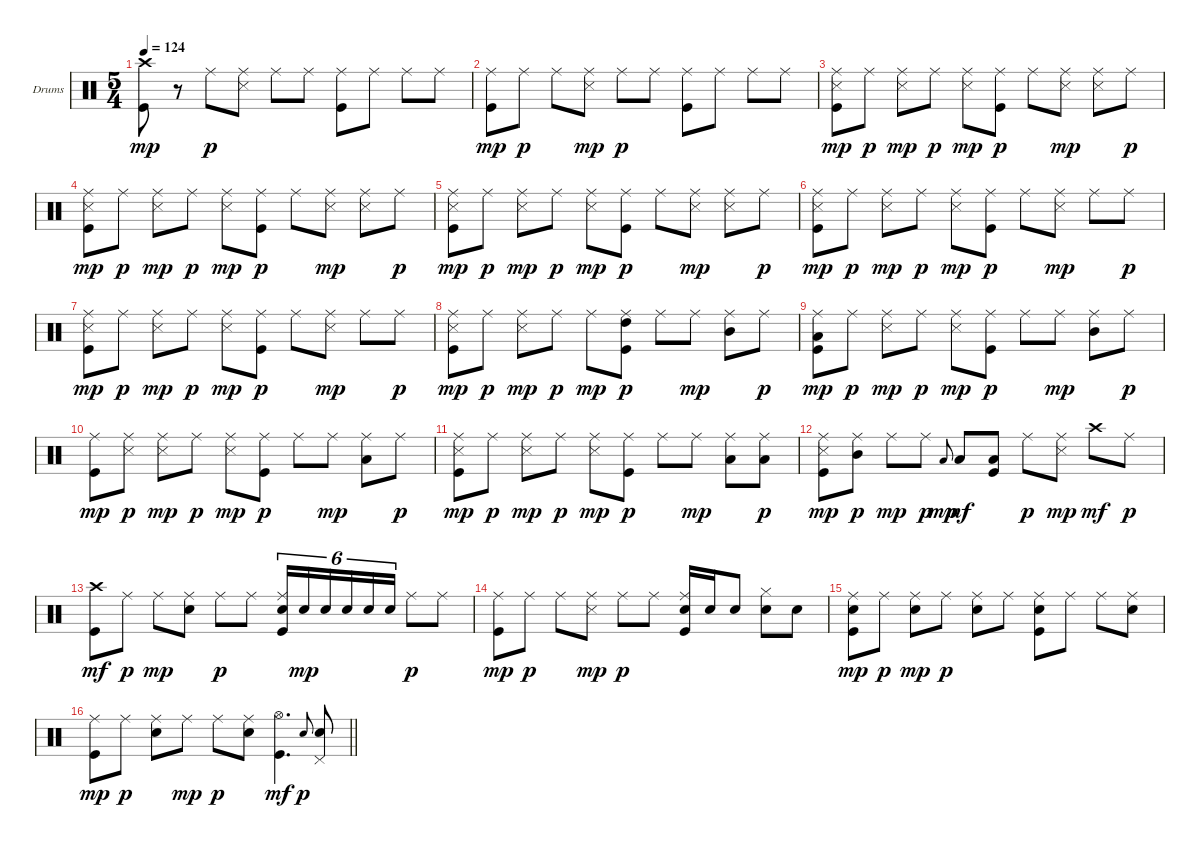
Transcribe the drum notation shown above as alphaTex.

\bracketExtendMode groupsimilarinstruments
\firstSystemTrackNameOrientation horizontal
\otherSystemsTrackNameOrientation horizontal
\track ("Drumkit" "Drums") {instrument percussion}
\staff {score}
\articulation defaults
\ts (5 4)
\tempo 124
\clef neutral
\ks aminor
("Crash high (hit)" "Kick (hit)").8{dy mp} r.8 "Ride (middle)".8{dy p} ("Ride (middle)" "Snare (side stick) 3").8 "Ride (middle)".8 "Ride (middle)".8 ("Ride (middle)" "Kick (hit)").8 "Ride (middle)".8 "Ride (middle)".8 "Ride (middle)".8 |
("Ride (middle)" "Kick (hit)").8{dy mp} "Ride (middle)".8{dy p} "Ride (middle)".8 ("Ride (middle)" "Snare (side stick) 3").8{dy mp} "Ride (middle)".8{dy p} "Ride (middle)".8 ("Ride (middle)" "Kick (hit)").8 "Ride (middle)".8 "Ride (middle)".8 "Ride (middle)".8 |
("Ride (middle)" "Snare (side stick) 3" "Kick (hit)").8{dy mp} "Ride (middle)".8{dy p} ("Ride (middle)" "Snare (side stick) 3").8{dy mp} "Ride (middle)".8{dy p} ("Ride (middle)" "Snare (side stick) 3").8{dy mp} ("Ride (middle)" "Kick (hit)").8{dy p} "Ride (middle)".8 ("Ride (middle)" "Snare (side stick) 3").8{dy mp} ("Ride (middle)" "Snare (side stick) 3").8 "Ride (middle)".8{dy p} |
("Ride (middle)" "Snare (side stick) 3" "Kick (hit)").8{dy mp} "Ride (middle)".8{dy p} ("Ride (middle)" "Snare (side stick) 3").8{dy mp} "Ride (middle)".8{dy p} ("Ride (middle)" "Snare (side stick) 3").8{dy mp} ("Ride (middle)" "Kick (hit)").8{dy p} "Ride (middle)".8 ("Ride (middle)" "Snare (side stick) 3").8{dy mp} ("Ride (middle)" "Snare (side stick) 3").8 "Ride (middle)".8{dy p} |
("Ride (middle)" "Snare (side stick) 3" "Kick (hit)").8{dy mp} "Ride (middle)".8{dy p} ("Ride (middle)" "Snare (side stick) 3").8{dy mp} "Ride (middle)".8{dy p} ("Ride (middle)" "Snare (side stick) 3").8{dy mp} ("Ride (middle)" "Kick (hit)").8{dy p} "Ride (middle)".8 ("Ride (middle)" "Snare (side stick) 3").8{dy mp} ("Ride (middle)" "Snare (side stick) 3").8 "Ride (middle)".8{dy p} |
("Ride (middle)" "Snare (side stick) 3" "Kick (hit)").8{dy mp} "Ride (middle)".8{dy p} ("Ride (middle)" "Snare (side stick) 3").8{dy mp} "Ride (middle)".8{dy p} ("Ride (middle)" "Snare (side stick) 3").8{dy mp} ("Ride (middle)" "Kick (hit)").8{dy p} "Ride (middle)".8 ("Ride (middle)" "Snare (side stick) 3").8{dy mp} "Ride (middle)".8 "Ride (middle)".8{dy p} |
("Ride (middle)" "Snare (side stick) 3" "Kick (hit)").8{dy mp} "Ride (middle)".8{dy p} ("Ride (middle)" "Snare (side stick) 3").8{dy mp} "Ride (middle)".8{dy p} ("Ride (middle)" "Snare (side stick) 3").8{dy mp} ("Ride (middle)" "Kick (hit)").8{dy p} "Ride (middle)".8 ("Ride (middle)" "Snare (side stick) 3").8{dy mp} "Ride (middle)".8 "Ride (middle)".8{dy p} |
("Ride (middle)" "Snare (side stick) 3" "Kick (hit)").8{dy mp} "Ride (middle)".8{dy p} ("Ride (middle)" "Snare (side stick) 3").8{dy mp} "Ride (middle)".8{dy p} "Ride (middle)".8{dy mp} ("Ride (middle)" "High Tom (hit)" "Kick (hit)").8{dy p} "Ride (middle)".8 "Ride (middle)".8{dy mp} ("Ride (middle)" "Mid Tom (hit)").8 "Ride (middle)".8{dy p} |
("Ride (middle)" "Low Tom (hit)" "Kick (hit)").8{dy mp} "Ride (middle)".8{dy p} ("Ride (middle)" "Snare (side stick) 3").8{dy mp} "Ride (middle)".8{dy p} ("Ride (middle)" "Snare (side stick) 3").8{dy mp} ("Ride (middle)" "Kick (hit)").8{dy p} "Ride (middle)".8 "Ride (middle)".8{dy mp} ("Ride (middle)" "Mid Tom (hit)").8 "Ride (middle)".8{dy p} |
("Ride (middle)" "Kick (hit)").8{dy mp} ("Ride (middle)" "Snare (side stick) 3").8{dy p} ("Ride (middle)" "Snare (side stick) 3").8{dy mp} "Ride (middle)".8{dy p} ("Ride (middle)" "Snare (side stick) 3").8{dy mp} ("Ride (middle)" "Kick (hit)").8{dy p} "Ride (middle)".8 "Ride (middle)".8{dy mp} ("Ride (middle)" "Low Tom (hit)").8 "Ride (middle)".8{dy p} |
("Ride (middle)" "Snare (side stick) 3" "Kick (hit)").8{dy mp} "Ride (middle)".8{dy p} ("Ride (middle)" "Snare (side stick) 3").8{dy mp} "Ride (middle)".8{dy p} ("Ride (middle)" "Snare (side stick) 3").8{dy mp} ("Ride (middle)" "Kick (hit)").8{dy p} "Ride (middle)".8 "Ride (middle)".8{dy mp} ("Ride (middle)" "Low Tom (hit)").8 ("Ride (middle)" "Low Tom (hit)").8{dy p} |
("Ride (middle)" "Snare (side stick) 3" "Kick (hit)").8{dy mp} ("Ride (middle)" "Mid Tom (hit)").8{dy p} "Ride (middle)".8{dy mp} "Ride (middle)".8{dy p} "Low Tom (hit)".8{gr onbeat dy mp} "Low Tom (hit)".8{dy mf} ("Low Tom (hit)" "Kick (hit)").8 "Ride (middle)".8{dy p} ("Ride (middle)" "Snare (side stick) 3").8{dy mp} "Crash high (hit)".8{dy mf} "Ride (middle)".8{dy p} |
("Crash high (hit)" "Kick (hit)").8{dy mf} "Ride (middle)".8{dy p} "Ride (middle)".8{dy mp} ("Ride (middle)" "Snare (hit) 2").8 "Ride (middle)".8{dy p} "Ride (middle)".8 ("Ride (middle)" "Snare (hit) 2" "Kick (hit)").16{tu (6 4)} "Snare (hit) 2".16{tu (6 4) dy mp} "Snare (hit) 2".16{tu (6 4)} "Snare (hit) 2".16{tu (6 4)} "Snare (hit) 2".16{tu (6 4)} "Snare (hit) 2".16{tu (6 4)} "Ride (middle)".8{dy p} "Ride (middle)".8 |
("Ride (middle)" "Kick (hit)").8{dy mp} "Ride (middle)".8{dy p} "Ride (middle)".8 ("Ride (middle)" "Snare (side stick) 3").8{dy mp} "Ride (middle)".8{dy p} "Ride (middle)".8 ("Ride (middle)" "Snare (hit) 2" "Kick (hit)").16 "Snare (hit) 2".16 "Snare (hit) 2".8 ("Hi-Hat (closed)" "Snare (hit) 2").8 "Snare (hit) 2".8 |
("Ride (middle)" "Snare (hit) 2" "Kick (hit)").8{dy mp} "Ride (middle)".8{dy p} ("Ride (middle)" "Snare (hit) 2").8{dy mp} "Ride (middle)".8{dy p} ("Ride (middle)" "Snare (hit) 2").8 "Ride (middle)".8 ("Ride (middle)" "Snare (hit) 2" "Kick (hit)").8 "Ride (middle)".8 "Ride (middle)".8 ("Ride (middle)" "Snare (hit) 2").8 |
\barLineRight lightlight
("Ride (middle)" "Kick (hit)").8{dy mp} "Ride (middle)".8{dy p} ("Ride (middle)" "Snare (hit) 2").8 "Ride (middle)".8{dy mp} "Ride (middle)".8{dy p} ("Ride (middle)" "Snare (hit) 2").8 ("Hi-Hat (open)" "Kick (hit)").4{d dy mf} "Snare (hit) 2".8{gr onbeat dy p} ("Pedal Hi-Hat (hit)" "Snare (hit) 2").8
